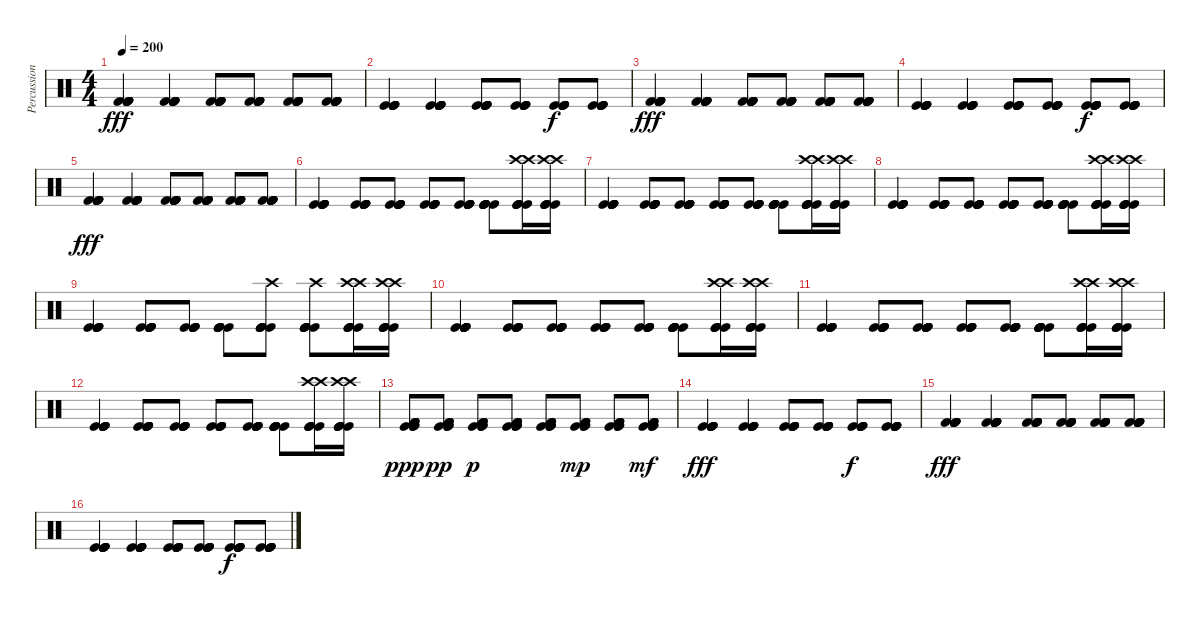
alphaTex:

\track ("Percussion" "Percussion") {instrument percussion}
\staff {score}
\articulation defaults
\ts (4 4)
\tempo 200
\clef neutral
\ks c
("Kick (hit) 2" "Kick (hit) 2" "Kick (hit) 2" "Kick (hit) 2" "Kick (hit) 2" "Kick (hit) 2").4{dy fff} ("Kick (hit) 2" "Kick (hit) 2" "Kick (hit) 2" "Kick (hit) 2" "Kick (hit) 2" "Kick (hit) 2").4 ("Kick (hit) 2" "Kick (hit) 2" "Kick (hit) 2" "Kick (hit) 2" "Kick (hit) 2" "Kick (hit) 2").8 ("Kick (hit) 2" "Kick (hit) 2" "Kick (hit) 2" "Kick (hit) 2" "Kick (hit) 2" "Kick (hit) 2").8 ("Kick (hit) 2" "Kick (hit) 2" "Kick (hit) 2" "Kick (hit) 2" "Kick (hit) 2" "Kick (hit) 2").8 ("Kick (hit) 2" "Kick (hit) 2" "Kick (hit) 2" "Kick (hit) 2" "Kick (hit) 2" "Kick (hit) 2").8 |
("Kick (hit)" "Kick (hit)" "Kick (hit)" "Kick (hit)" "Kick (hit)" "Kick (hit)").4 ("Kick (hit)" "Kick (hit)" "Kick (hit)" "Kick (hit)" "Kick (hit)" "Kick (hit)").4 ("Kick (hit)" "Kick (hit)" "Kick (hit)" "Kick (hit)" "Kick (hit)" "Kick (hit)").8 ("Kick (hit)" "Kick (hit)" "Kick (hit)" "Kick (hit)" "Kick (hit)" "Kick (hit)").8 ("Kick (hit)" "Kick (hit)" "Kick (hit)" "Kick (hit)" "Kick (hit)" "Kick (hit)").8{dy f} ("Kick (hit)" "Kick (hit)" "Kick (hit)" "Kick (hit)" "Kick (hit)" "Kick (hit)").8 |
("Kick (hit) 2" "Kick (hit) 2" "Kick (hit) 2" "Kick (hit) 2" "Kick (hit) 2" "Kick (hit) 2").4{dy fff} ("Kick (hit) 2" "Kick (hit) 2" "Kick (hit) 2" "Kick (hit) 2" "Kick (hit) 2" "Kick (hit) 2").4 ("Kick (hit) 2" "Kick (hit) 2" "Kick (hit) 2" "Kick (hit) 2" "Kick (hit) 2" "Kick (hit) 2").8 ("Kick (hit) 2" "Kick (hit) 2" "Kick (hit) 2" "Kick (hit) 2" "Kick (hit) 2" "Kick (hit) 2").8 ("Kick (hit) 2" "Kick (hit) 2" "Kick (hit) 2" "Kick (hit) 2" "Kick (hit) 2" "Kick (hit) 2").8 ("Kick (hit) 2" "Kick (hit) 2" "Kick (hit) 2" "Kick (hit) 2" "Kick (hit) 2" "Kick (hit) 2").8 |
("Kick (hit)" "Kick (hit)" "Kick (hit)" "Kick (hit)" "Kick (hit)" "Kick (hit)").4 ("Kick (hit)" "Kick (hit)" "Kick (hit)" "Kick (hit)" "Kick (hit)" "Kick (hit)").4 ("Kick (hit)" "Kick (hit)" "Kick (hit)" "Kick (hit)" "Kick (hit)" "Kick (hit)").8 ("Kick (hit)" "Kick (hit)" "Kick (hit)" "Kick (hit)" "Kick (hit)" "Kick (hit)").8 ("Kick (hit)" "Kick (hit)" "Kick (hit)" "Kick (hit)" "Kick (hit)" "Kick (hit)").8{dy f} ("Kick (hit)" "Kick (hit)" "Kick (hit)" "Kick (hit)" "Kick (hit)" "Kick (hit)").8 |
("Kick (hit) 2" "Kick (hit) 2" "Kick (hit) 2" "Kick (hit) 2" "Kick (hit) 2" "Kick (hit) 2").4{dy fff} ("Kick (hit) 2" "Kick (hit) 2" "Kick (hit) 2" "Kick (hit) 2" "Kick (hit) 2" "Kick (hit) 2").4 ("Kick (hit) 2" "Kick (hit) 2" "Kick (hit) 2" "Kick (hit) 2" "Kick (hit) 2" "Kick (hit) 2").8 ("Kick (hit) 2" "Kick (hit) 2" "Kick (hit) 2" "Kick (hit) 2" "Kick (hit) 2" "Kick (hit) 2").8 ("Kick (hit) 2" "Kick (hit) 2" "Kick (hit) 2" "Kick (hit) 2" "Kick (hit) 2" "Kick (hit) 2").8 ("Kick (hit) 2" "Kick (hit) 2" "Kick (hit) 2" "Kick (hit) 2" "Kick (hit) 2" "Kick (hit) 2").8 |
("Kick (hit)" "Kick (hit)" "Kick (hit)" "Kick (hit)" "Kick (hit)" "Kick (hit)").4 ("Kick (hit)" "Kick (hit)" "Kick (hit)" "Kick (hit)" "Kick (hit)" "Kick (hit)").8 ("Kick (hit)" "Kick (hit)" "Kick (hit)" "Kick (hit)" "Kick (hit)" "Kick (hit)").8 ("Kick (hit)" "Kick (hit)" "Kick (hit)" "Kick (hit)" "Kick (hit)" "Kick (hit)").8 ("Kick (hit)" "Kick (hit)" "Kick (hit)" "Kick (hit)" "Kick (hit)" "Kick (hit)").8 ("Kick (hit)" "Kick (hit)" "Kick (hit)" "Kick (hit)" "Kick (hit)" "Kick (hit)").8 ("Crash high (hit)" "Kick (hit)" "Kick (hit)" "Kick (hit)" "Crash high (hit)" "Kick (hit)").16 ("Kick (hit)" "Kick (hit)" "Crash high (hit)" "Kick (hit)" "Kick (hit)" "Crash high (hit)").16 |
("Kick (hit)" "Kick (hit)" "Kick (hit)" "Kick (hit)" "Kick (hit)" "Kick (hit)").4 ("Kick (hit)" "Kick (hit)" "Kick (hit)" "Kick (hit)" "Kick (hit)" "Kick (hit)").8 ("Kick (hit)" "Kick (hit)" "Kick (hit)" "Kick (hit)" "Kick (hit)" "Kick (hit)").8 ("Kick (hit)" "Kick (hit)" "Kick (hit)" "Kick (hit)" "Kick (hit)" "Kick (hit)").8 ("Kick (hit)" "Kick (hit)" "Kick (hit)" "Kick (hit)" "Kick (hit)" "Kick (hit)").8 ("Kick (hit)" "Kick (hit)" "Kick (hit)" "Kick (hit)" "Kick (hit)" "Kick (hit)").8 ("Crash high (hit)" "Kick (hit)" "Kick (hit)" "Kick (hit)" "Crash high (hit)" "Kick (hit)").16 ("Kick (hit)" "Kick (hit)" "Crash high (hit)" "Kick (hit)" "Kick (hit)" "Crash high (hit)").16 |
("Kick (hit)" "Kick (hit)" "Kick (hit)" "Kick (hit)" "Kick (hit)" "Kick (hit)").4 ("Kick (hit)" "Kick (hit)" "Kick (hit)" "Kick (hit)" "Kick (hit)" "Kick (hit)").8 ("Kick (hit)" "Kick (hit)" "Kick (hit)" "Kick (hit)" "Kick (hit)" "Kick (hit)").8 ("Kick (hit)" "Kick (hit)" "Kick (hit)" "Kick (hit)" "Kick (hit)" "Kick (hit)").8 ("Kick (hit)" "Kick (hit)" "Kick (hit)" "Kick (hit)" "Kick (hit)" "Kick (hit)").8 ("Kick (hit)" "Kick (hit)" "Kick (hit)" "Kick (hit)" "Kick (hit)" "Kick (hit)").8 ("Crash high (hit)" "Kick (hit)" "Kick (hit)" "Kick (hit)" "Crash high (hit)" "Kick (hit)").16 ("Kick (hit)" "Kick (hit)" "Crash high (hit)" "Kick (hit)" "Kick (hit)" "Crash high (hit)").16 |
("Kick (hit)" "Kick (hit)" "Kick (hit)" "Kick (hit)" "Kick (hit)" "Kick (hit)").4 ("Kick (hit)" "Kick (hit)" "Kick (hit)" "Kick (hit)" "Kick (hit)" "Kick (hit)").8 ("Kick (hit)" "Kick (hit)" "Kick (hit)" "Kick (hit)" "Kick (hit)" "Kick (hit)").8 ("Kick (hit)" "Kick (hit)" "Kick (hit)" "Kick (hit)" "Kick (hit)" "Kick (hit)").8 ("Kick (hit)" "Kick (hit)" "Kick (hit)" "Kick (hit)" "Crash high (hit)" "Kick (hit)").8 ("Kick (hit)" "Kick (hit)" "Crash high (hit)" "Kick (hit)" "Kick (hit)" "Kick (hit)").8 ("Crash high (hit)" "Kick (hit)" "Kick (hit)" "Kick (hit)" "Crash high (hit)" "Kick (hit)").16 ("Kick (hit)" "Kick (hit)" "Crash high (hit)" "Kick (hit)" "Kick (hit)" "Crash high (hit)").16 |
("Kick (hit)" "Kick (hit)" "Kick (hit)" "Kick (hit)" "Kick (hit)" "Kick (hit)").4 ("Kick (hit)" "Kick (hit)" "Kick (hit)" "Kick (hit)" "Kick (hit)" "Kick (hit)").8 ("Kick (hit)" "Kick (hit)" "Kick (hit)" "Kick (hit)" "Kick (hit)" "Kick (hit)").8 ("Kick (hit)" "Kick (hit)" "Kick (hit)" "Kick (hit)" "Kick (hit)" "Kick (hit)").8 ("Kick (hit)" "Kick (hit)" "Kick (hit)" "Kick (hit)" "Kick (hit)" "Kick (hit)").8 ("Kick (hit)" "Kick (hit)" "Kick (hit)" "Kick (hit)" "Kick (hit)" "Kick (hit)").8 ("Crash high (hit)" "Kick (hit)" "Kick (hit)" "Kick (hit)" "Crash high (hit)" "Kick (hit)").16 ("Kick (hit)" "Kick (hit)" "Crash high (hit)" "Kick (hit)" "Kick (hit)" "Crash high (hit)").16 |
("Kick (hit)" "Kick (hit)" "Kick (hit)" "Kick (hit)" "Kick (hit)" "Kick (hit)").4 ("Kick (hit)" "Kick (hit)" "Kick (hit)" "Kick (hit)" "Kick (hit)" "Kick (hit)").8 ("Kick (hit)" "Kick (hit)" "Kick (hit)" "Kick (hit)" "Kick (hit)" "Kick (hit)").8 ("Kick (hit)" "Kick (hit)" "Kick (hit)" "Kick (hit)" "Kick (hit)" "Kick (hit)").8 ("Kick (hit)" "Kick (hit)" "Kick (hit)" "Kick (hit)" "Kick (hit)" "Kick (hit)").8 ("Kick (hit)" "Kick (hit)" "Kick (hit)" "Kick (hit)" "Kick (hit)" "Kick (hit)").8 ("Crash high (hit)" "Kick (hit)" "Kick (hit)" "Kick (hit)" "Crash high (hit)" "Kick (hit)").16 ("Kick (hit)" "Kick (hit)" "Crash high (hit)" "Kick (hit)" "Kick (hit)" "Crash high (hit)").16 |
("Kick (hit)" "Kick (hit)" "Kick (hit)" "Kick (hit)" "Kick (hit)" "Kick (hit)").4 ("Kick (hit)" "Kick (hit)" "Kick (hit)" "Kick (hit)" "Kick (hit)" "Kick (hit)").8 ("Kick (hit)" "Kick (hit)" "Kick (hit)" "Kick (hit)" "Kick (hit)" "Kick (hit)").8 ("Kick (hit)" "Kick (hit)" "Kick (hit)" "Kick (hit)" "Kick (hit)" "Kick (hit)").8 ("Kick (hit)" "Kick (hit)" "Kick (hit)" "Kick (hit)" "Kick (hit)" "Kick (hit)").8 ("Kick (hit)" "Kick (hit)" "Kick (hit)" "Kick (hit)" "Kick (hit)" "Kick (hit)").8 ("Crash high (hit)" "Kick (hit)" "Kick (hit)" "Kick (hit)" "Crash high (hit)" "Kick (hit)").16 ("Kick (hit)" "Kick (hit)" "Crash high (hit)" "Kick (hit)" "Kick (hit)" "Crash high (hit)").16 |
("Kick (hit)" "Kick (hit) 2" "Kick (hit)" "Kick (hit) 2" "Kick (hit)" "Kick (hit) 2").8{dy ppp} ("Kick (hit)" "Kick (hit) 2" "Kick (hit)" "Kick (hit) 2" "Kick (hit)" "Kick (hit) 2").8{dy pp} ("Kick (hit)" "Kick (hit) 2" "Kick (hit)" "Kick (hit) 2" "Kick (hit)" "Kick (hit) 2").8{dy p} ("Kick (hit)" "Kick (hit) 2" "Kick (hit)" "Kick (hit) 2" "Kick (hit)" "Kick (hit) 2").8 ("Kick (hit)" "Kick (hit) 2" "Kick (hit)" "Kick (hit) 2" "Kick (hit)" "Kick (hit) 2").8 ("Kick (hit)" "Kick (hit) 2" "Kick (hit)" "Kick (hit) 2" "Kick (hit)" "Kick (hit) 2").8{dy mp} ("Kick (hit)" "Kick (hit) 2" "Kick (hit)" "Kick (hit) 2" "Kick (hit)" "Kick (hit) 2").8 ("Kick (hit)" "Kick (hit) 2" "Kick (hit)" "Kick (hit) 2" "Kick (hit)" "Kick (hit) 2").8{dy mf} |
("Kick (hit)" "Kick (hit)" "Kick (hit)" "Kick (hit)" "Kick (hit)" "Kick (hit)").4{dy fff} ("Kick (hit)" "Kick (hit)" "Kick (hit)" "Kick (hit)" "Kick (hit)" "Kick (hit)").4 ("Kick (hit)" "Kick (hit)" "Kick (hit)" "Kick (hit)" "Kick (hit)" "Kick (hit)").8 ("Kick (hit)" "Kick (hit)" "Kick (hit)" "Kick (hit)" "Kick (hit)" "Kick (hit)").8 ("Kick (hit)" "Kick (hit)" "Kick (hit)" "Kick (hit)" "Kick (hit)" "Kick (hit)").8{dy f} ("Kick (hit)" "Kick (hit)" "Kick (hit)" "Kick (hit)" "Kick (hit)" "Kick (hit)").8 |
("Kick (hit) 2" "Kick (hit) 2" "Kick (hit) 2" "Kick (hit) 2" "Kick (hit) 2" "Kick (hit) 2").4{dy fff} ("Kick (hit) 2" "Kick (hit) 2" "Kick (hit) 2" "Kick (hit) 2" "Kick (hit) 2" "Kick (hit) 2").4 ("Kick (hit) 2" "Kick (hit) 2" "Kick (hit) 2" "Kick (hit) 2" "Kick (hit) 2" "Kick (hit) 2").8 ("Kick (hit) 2" "Kick (hit) 2" "Kick (hit) 2" "Kick (hit) 2" "Kick (hit) 2" "Kick (hit) 2").8 ("Kick (hit) 2" "Kick (hit) 2" "Kick (hit) 2" "Kick (hit) 2" "Kick (hit) 2" "Kick (hit) 2").8 ("Kick (hit) 2" "Kick (hit) 2" "Kick (hit) 2" "Kick (hit) 2" "Kick (hit) 2" "Kick (hit) 2").8 |
("Kick (hit)" "Kick (hit)" "Kick (hit)" "Kick (hit)" "Kick (hit)" "Kick (hit)").4 ("Kick (hit)" "Kick (hit)" "Kick (hit)" "Kick (hit)" "Kick (hit)" "Kick (hit)").4 ("Kick (hit)" "Kick (hit)" "Kick (hit)" "Kick (hit)" "Kick (hit)" "Kick (hit)").8 ("Kick (hit)" "Kick (hit)" "Kick (hit)" "Kick (hit)" "Kick (hit)" "Kick (hit)").8 ("Kick (hit)" "Kick (hit)" "Kick (hit)" "Kick (hit)" "Kick (hit)" "Kick (hit)").8{dy f} ("Kick (hit)" "Kick (hit)" "Kick (hit)" "Kick (hit)" "Kick (hit)" "Kick (hit)").8
